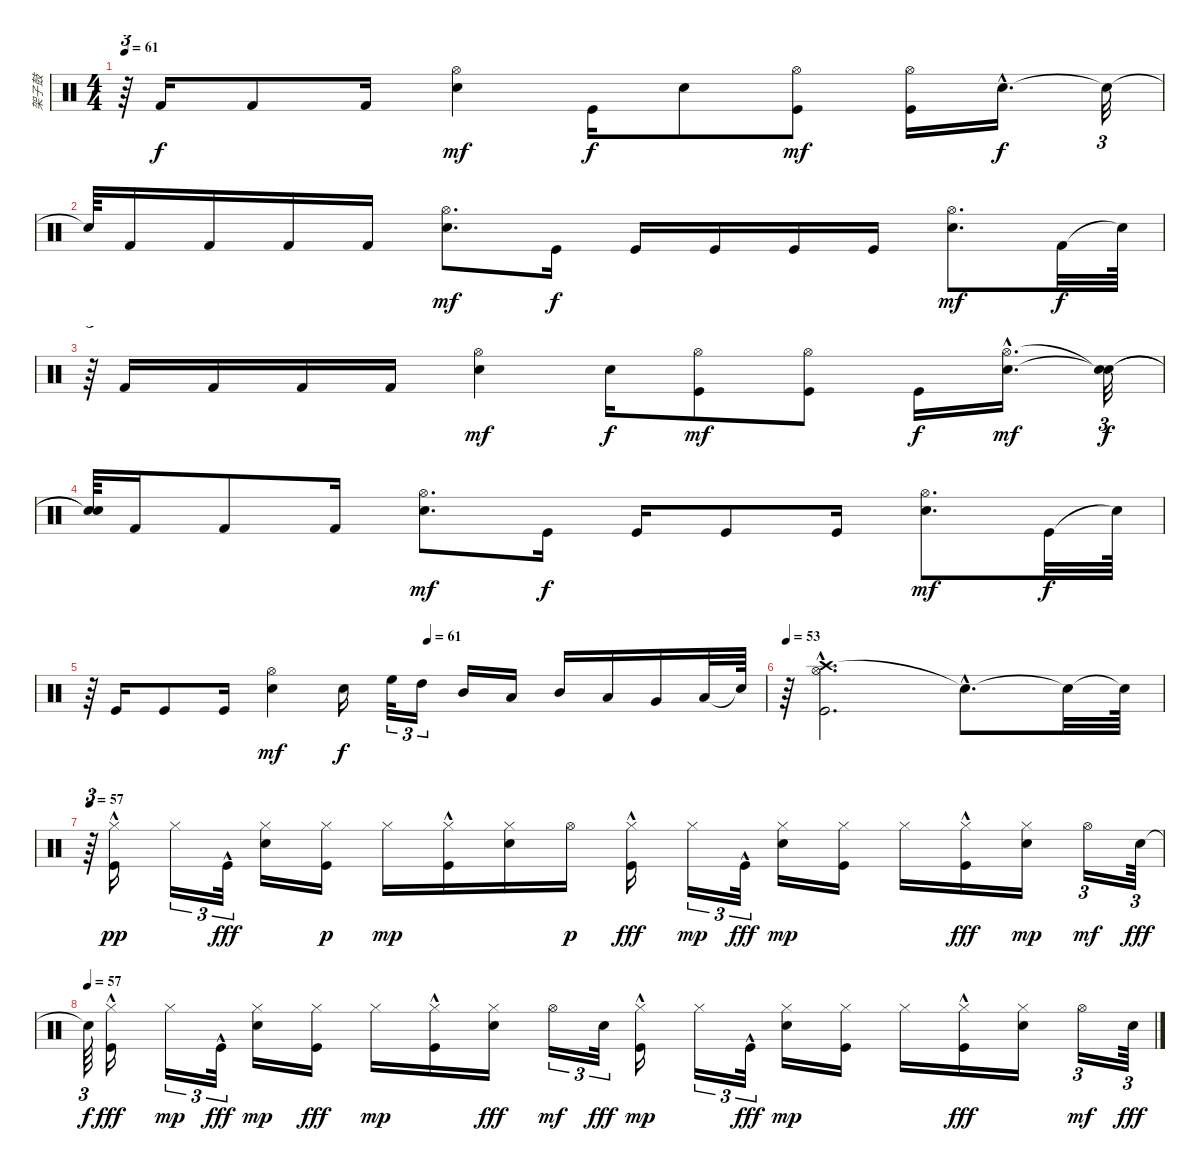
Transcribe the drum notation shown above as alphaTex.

\track ("架子鼓" "架子鼓") {instrument percussion}
\staff {score}
\articulation defaults
\ts (4 4)
\tempo 61
\clef neutral
\ks c
r.64{tu (3 2) dy f} "Kick (hit) 2".16 "Kick (hit) 2".8 "Kick (hit) 2".16 ("Hi-Hat (open)" "Electric Snare (hit)").4{dy mf} "Kick (hit)".16{dy f} "Electric Snare (hit)".8 ("Kick (hit)" "Hi-Hat (open)").8{dy mf} ("Hi-Hat (open)" "Kick (hit)").16 "Electric Snare (hit)"{hac}.16{d dy f} "Snare (hit)"{t}.32{tu (3 2)} |
"Snare (hit)"{t}.64 "Kick (hit) 2".16 "Kick (hit) 2".16 "Kick (hit) 2".16 "Kick (hit) 2".16 ("Electric Snare (hit)" "Hi-Hat (open)").8{d dy mf} "Kick (hit)".16{dy f} "Kick (hit)".16 "Kick (hit)".16 "Kick (hit)".16 "Kick (hit)".16 ("Hi-Hat (open)" "Electric Snare (hit)").8{d dy mf} "Kick (hit) 2".32{dy f} "Snare (hit)"{t}.64 |
r.64{tu (3 2)} "Kick (hit) 2".16 "Kick (hit) 2".16 "Kick (hit) 2".16 "Kick (hit) 2".16 ("Electric Snare (hit)" "Hi-Hat (open)").4{dy mf} "Electric Snare (hit)".16{dy f} ("Kick (hit)" "Hi-Hat (open)").8{dy mf} ("Hi-Hat (open)" "Kick (hit)").8 "Kick (hit)".16{dy f} ("Hi-Hat (open)"{hac} "Electric Snare (hit)"{hac}).16{d dy mf} ("Snare (hit)"{t} "Snare (hit)"{t}).32{tu (3 2) dy f} |
("Snare (hit)"{t} "Snare (hit)"{t}).64 "Kick (hit) 2".16 "Kick (hit) 2".8 "Kick (hit) 2".16 ("Electric Snare (hit)" "Hi-Hat (open)").8{d dy mf} "Kick (hit)".16{dy f} "Kick (hit)".16 "Kick (hit)".8 "Kick (hit)".16 ("Electric Snare (hit)" "Hi-Hat (open)").8{d dy mf} "Kick (hit)".32{dy f} "Snare (hit)"{t}.64 |
\tempo (61 0.5)
r.64 "Kick (hit)".16 "Kick (hit)".8 "Kick (hit)".16 ("Electric Snare (hit)" "Hi-Hat (open)").4{dy mf} "Electric Snare (hit)".16{dy f} "High Floor Tom (hit)".32{tu (3 2)} "High Tom (hit)".16{tu (3 2)} "Mid Tom (hit)".16 "Low Tom (hit)".16 "Mid Tom (hit)".16 "Low Tom (hit)".16 "Very Low Tom (hit)".16 "Low Floor Tom (hit)".32 "Snare (hit)"{t}.64 |
\tempo 53
r.64 ("Crash high (hit)" "Hi-Hat (open)"{hac} "Kick (hit)").2{d} "Snare (hit)"{hac t}.8{d} "Snare (hit)"{t}.32 "Snare (hit)"{t}.64 |
\tempo 57
r.64{tu (3 2)} ("Kick (hit)"{hac} "Hi-Hat (closed)").16{dy pp} "Hi-Hat (closed)".16{tu (3 2)} "Kick (hit)"{hac}.32{tu (3 2) dy fff} ("Hi-Hat (closed)" "Electric Snare (hit)").16 ("Kick (hit)" "Hi-Hat (closed)").16{dy p} "Hi-Hat (closed)".16{dy mp} ("Kick (hit)"{hac} "Hi-Hat (closed)").16 ("Electric Snare (hit)" "Hi-Hat (closed)").16 "Hi-Hat (open)".16{dy p} ("Hi-Hat (closed)" "Kick (hit)"{hac}).16{dy fff} "Hi-Hat (closed)".16{tu (3 2) dy mp} "Kick (hit)"{hac}.32{tu (3 2) dy fff} ("Electric Snare (hit)" "Hi-Hat (closed)").16{dy mp} ("Kick (hit)" "Hi-Hat (closed)").16 "Hi-Hat (closed)".16 ("Hi-Hat (closed)" "Kick (hit)"{hac}).16{dy fff} ("Electric Snare (hit)" "Hi-Hat (closed)").16{dy mp} "Hi-Hat (open)".16{tu (3 2) dy mf} "Electric Snare (hit)".64{tu (3 2) dy fff} |
\tempo (57)
"Snare (hit)"{t}.64{tu (3 2) dy f} ("Hi-Hat (closed)" "Kick (hit)"{hac}).16{dy fff} "Hi-Hat (closed)".16{tu (3 2) dy mp} "Kick (hit)"{hac}.32{tu (3 2) dy fff} ("Electric Snare (hit)" "Hi-Hat (closed)").16{dy mp} ("Hi-Hat (closed)" "Kick (hit)").16{dy fff} "Hi-Hat (closed)".16{dy mp} ("Kick (hit)"{hac} "Hi-Hat (closed)").16 ("Hi-Hat (closed)" "Electric Snare (hit)").16{dy fff} "Hi-Hat (open)".16{tu (3 2) dy mf} "Electric Snare (hit)".32{tu (3 2) dy fff} ("Kick (hit)"{hac} "Hi-Hat (closed)").16{dy mp} "Hi-Hat (closed)".16{tu (3 2)} "Kick (hit)"{hac}.32{tu (3 2) dy fff} ("Electric Snare (hit)" "Hi-Hat (closed)").16{dy mp} ("Kick (hit)" "Hi-Hat (closed)").16 "Hi-Hat (closed)".16 ("Hi-Hat (closed)" "Kick (hit)"{hac}).16{dy fff} ("Hi-Hat (closed)" "Electric Snare (hit)").16 "Hi-Hat (open)".16{tu (3 2) dy mf} "Electric Snare (hit)".64{tu (3 2) dy fff}
